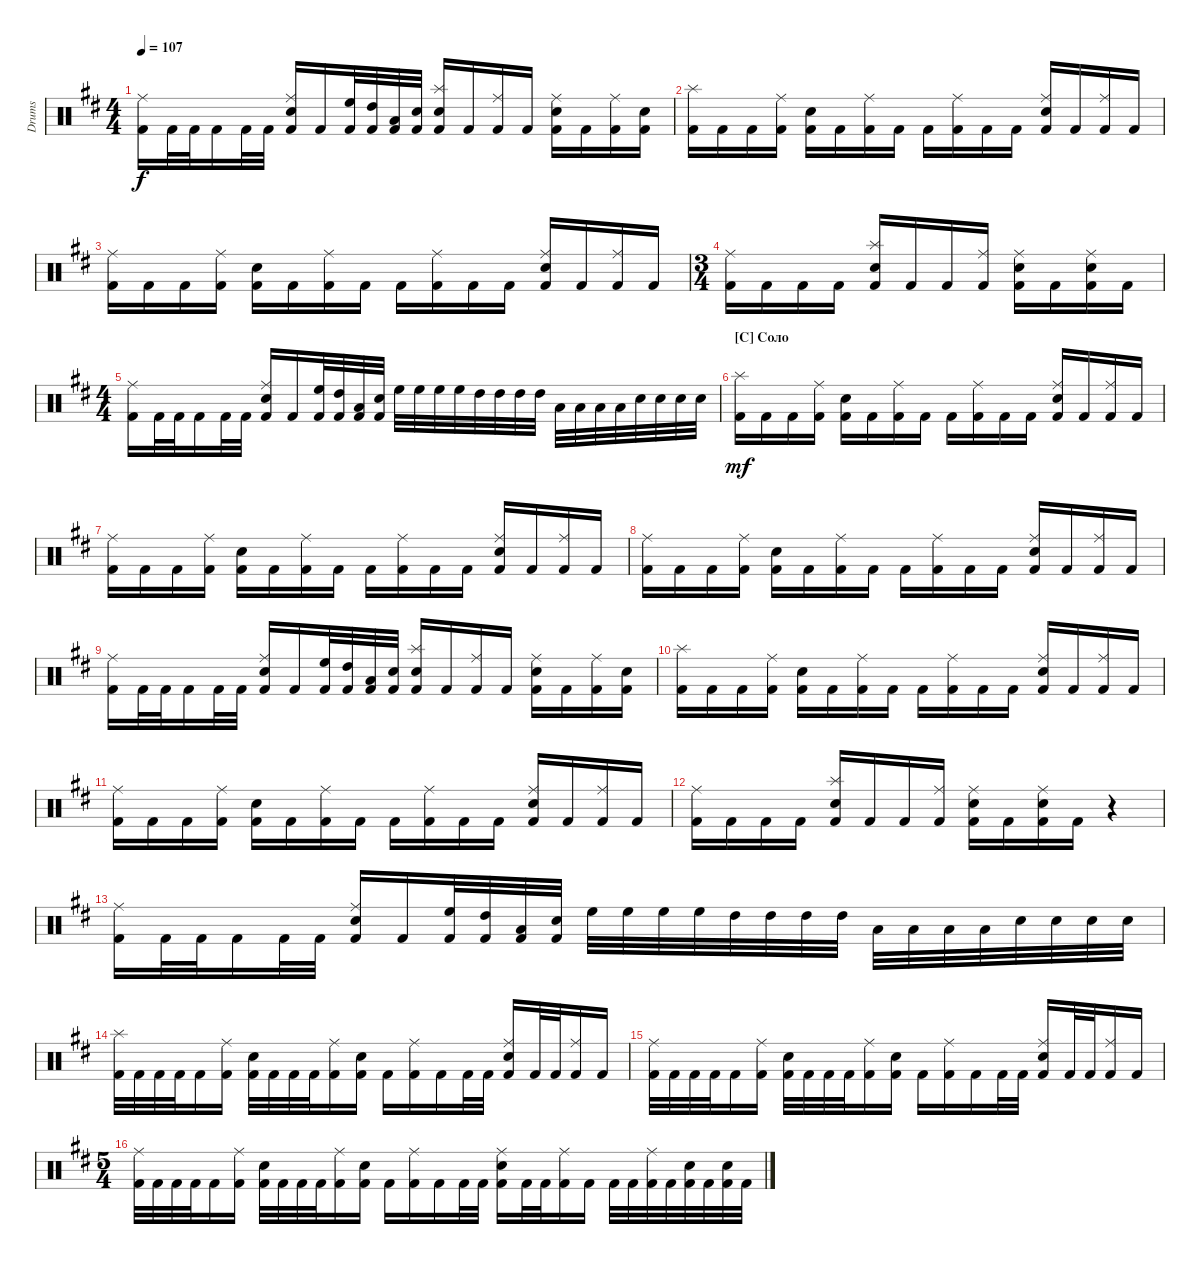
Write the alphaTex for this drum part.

\bracketExtendMode groupsimilarinstruments
\track ("Drumkit" "Drums") {multiBarRest instrument percussion}
\staff {score}
\articulation defaults
\ts (4 4)
\tempo 107
\clef neutral
\ks bminor
("Kick (hit) 2"{acc forcenatural} "Ride (middle)"{acc forcenatural}).16{dy f beam Down} "Kick (hit) 2"{acc forcenatural}.32{beam Down} "Kick (hit) 2"{acc forcenatural}.32{beam Down} "Kick (hit) 2"{acc forcenatural}.16{beam Down} "Kick (hit) 2"{acc forcenatural}.32{beam Down} "Kick (hit) 2"{acc forcenatural}.32{beam Down} ("Kick (hit) 2"{acc forcenatural} "Ride (middle)"{acc forcenatural} "Snare (hit) 2"{acc forcenatural}).16{beam Up} "Kick (hit) 2"{acc forcenatural}.16{beam Up} ("Kick (hit) 2"{acc forcenatural} "High Floor Tom (hit)"{acc forcenatural}).32{beam Up} ("Kick (hit) 2"{acc forcenatural} "High Tom (hit)"{acc forcenatural}).32{beam Up} ("Kick (hit) 2"{acc forcenatural} "Low Tom (hit)"{acc forcenatural}).32{beam Up} ("Kick (hit) 2"{acc forcenatural} "Snare (hit) 2"{acc forcenatural}).32{beam Up} ("Kick (hit) 2"{acc forcenatural} "Snare (hit) 2"{acc forcenatural} "Splash (hit)"{acc forcenatural}).16{beam Up} "Kick (hit) 2"{acc forcenatural}.16{beam Up} ("Kick (hit) 2"{acc forcenatural} "Ride (middle)"{acc forcenatural}).16{beam Up} "Kick (hit) 2"{acc forcenatural}.16{beam Up} ("Kick (hit) 2"{acc forcenatural} "Ride (middle)"{acc forcenatural} "Snare (hit) 2"{acc forcenatural}).16{beam Down} "Kick (hit) 2"{acc forcenatural}.16{beam Down} ("Kick (hit) 2"{acc forcenatural} "Ride (middle)"{acc forcenatural}).16{beam Down} ("Kick (hit) 2"{acc forcenatural} "Snare (hit) 2"{acc forcenatural}).16{beam Down} |
("Kick (hit) 2"{acc forcenatural} "Splash (hit)"{acc forcenatural}).16{beam Down} "Kick (hit) 2"{acc forcenatural}.16{beam Down} "Kick (hit) 2"{acc forcenatural}.16{beam Down} ("Kick (hit) 2"{acc forcenatural} "Ride (middle)"{acc forcenatural}).16{beam Down} ("Kick (hit) 2"{acc forcenatural} "Snare (hit) 2"{acc forcenatural}).16{beam Down} "Kick (hit) 2"{acc forcenatural}.16{beam Down} ("Kick (hit) 2"{acc forcenatural} "Ride (middle)"{acc forcenatural}).16{beam Down} "Kick (hit) 2"{acc forcenatural}.16{beam Down} "Kick (hit) 2"{acc forcenatural}.16{beam Down} ("Kick (hit) 2"{acc forcenatural} "Ride (middle)"{acc forcenatural}).16{beam Down} "Kick (hit) 2"{acc forcenatural}.16{beam Down} "Kick (hit) 2"{acc forcenatural}.16{beam Down} ("Kick (hit) 2"{acc forcenatural} "Ride (middle)"{acc forcenatural} "Snare (hit) 2"{acc forcenatural}).16{beam Up} "Kick (hit) 2"{acc forcenatural}.16{beam Up} ("Kick (hit) 2"{acc forcenatural} "Ride (middle)"{acc forcenatural}).16{beam Up} "Kick (hit) 2"{acc forcenatural}.16{beam Up} |
("Kick (hit) 2"{acc forcenatural} "Ride (middle)"{acc forcenatural}).16{beam Down} "Kick (hit) 2"{acc forcenatural}.16{beam Down} "Kick (hit) 2"{acc forcenatural}.16{beam Down} ("Kick (hit) 2"{acc forcenatural} "Ride (middle)"{acc forcenatural}).16{beam Down} ("Kick (hit) 2"{acc forcenatural} "Snare (hit) 2"{acc forcenatural}).16{beam Down} "Kick (hit) 2"{acc forcenatural}.16{beam Down} ("Kick (hit) 2"{acc forcenatural} "Ride (middle)"{acc forcenatural}).16{beam Down} "Kick (hit) 2"{acc forcenatural}.16{beam Down} "Kick (hit) 2"{acc forcenatural}.16{beam Down} ("Kick (hit) 2"{acc forcenatural} "Ride (middle)"{acc forcenatural}).16{beam Down} "Kick (hit) 2"{acc forcenatural}.16{beam Down} "Kick (hit) 2"{acc forcenatural}.16{beam Down} ("Kick (hit) 2"{acc forcenatural} "Ride (middle)"{acc forcenatural} "Snare (hit) 2"{acc forcenatural}).16{beam Up} "Kick (hit) 2"{acc forcenatural}.16{beam Up} ("Kick (hit) 2"{acc forcenatural} "Ride (middle)"{acc forcenatural}).16{beam Up} "Kick (hit) 2"{acc forcenatural}.16{beam Up} |
\ts (3 4)
("Kick (hit) 2"{acc forcenatural} "Ride (middle)"{acc forcenatural}).16{beam Down} "Kick (hit) 2"{acc forcenatural}.16{beam Down} "Kick (hit) 2"{acc forcenatural}.16{beam Down} "Kick (hit) 2"{acc forcenatural}.16{beam Down} ("Kick (hit) 2"{acc forcenatural} "Splash (hit)"{acc forcenatural} "Snare (hit) 2"{acc forcenatural}).16{beam Up} "Kick (hit) 2"{acc forcenatural}.16{beam Up} "Kick (hit) 2"{acc forcenatural}.16{beam Up} ("Kick (hit) 2"{acc forcenatural} "Ride (middle)"{acc forcenatural}).16{beam Up} ("Kick (hit) 2"{acc forcenatural} "Ride (middle)"{acc forcenatural} "Snare (hit) 2"{acc forcenatural}).16{beam Down} "Kick (hit) 2"{acc forcenatural}.16{beam Down} ("Kick (hit) 2"{acc forcenatural} "Ride (middle)"{acc forcenatural} "Snare (hit) 2"{acc forcenatural}).16{beam Down} "Kick (hit) 2"{acc forcenatural}.16{beam Down} |
\ts (4 4)
("Kick (hit) 2"{acc forcenatural} "Ride (middle)"{acc forcenatural}).16{beam Down} "Kick (hit) 2"{acc forcenatural}.32{beam Down} "Kick (hit) 2"{acc forcenatural}.32{beam Down} "Kick (hit) 2"{acc forcenatural}.16{beam Down} "Kick (hit) 2"{acc forcenatural}.32{beam Down} "Kick (hit) 2"{acc forcenatural}.32{beam Down} ("Kick (hit) 2"{acc forcenatural} "Ride (middle)"{acc forcenatural} "Snare (hit) 2"{acc forcenatural}).16{beam Up} "Kick (hit) 2"{acc forcenatural}.16{beam Up} ("Kick (hit) 2"{acc forcenatural} "High Floor Tom (hit)"{acc forcenatural}).32{beam Up} ("Kick (hit) 2"{acc forcenatural} "High Tom (hit)"{acc forcenatural}).32{beam Up} ("Kick (hit) 2"{acc forcenatural} "Low Tom (hit)"{acc forcenatural}).32{beam Up} ("Kick (hit) 2"{acc forcenatural} "Snare (hit) 2"{acc forcenatural}).32{beam Up} "High Floor Tom (hit)"{acc forcenatural}.32{beam Down} "High Floor Tom (hit)"{acc forcenatural}.32{beam Down} "High Floor Tom (hit)"{acc forcenatural}.32{beam Down} "High Floor Tom (hit)"{acc forcenatural}.32{beam Down} "High Tom (hit)"{acc forcenatural}.32{beam Down} "High Tom (hit)"{acc forcenatural}.32{beam Down} "High Tom (hit)"{acc forcenatural}.32{beam Down} "High Tom (hit)"{acc forcenatural}.32{beam Down} "Low Tom (hit)"{acc forcenatural}.32{beam Down} "Low Tom (hit)"{acc forcenatural}.32{beam Down} "Low Tom (hit)"{acc forcenatural}.32{beam Down} "Low Tom (hit)"{acc forcenatural}.32{beam Down} "Snare (hit) 2"{acc forcenatural}.32{beam Down} "Snare (hit) 2"{acc forcenatural}.32{beam Down} "Snare (hit) 2"{acc forcenatural}.32{beam Down} "Snare (hit) 2"{acc forcenatural}.32{beam Down} |
\section ("C" "Соло")
("Kick (hit) 2"{acc forcenatural} "Splash (hit)"{acc forcenatural}).16{dy mf beam Down} "Kick (hit) 2"{acc forcenatural}.16{beam Down} "Kick (hit) 2"{acc forcenatural}.16{beam Down} ("Kick (hit) 2"{acc forcenatural} "Ride (middle)"{acc forcenatural}).16{beam Down} ("Kick (hit) 2"{acc forcenatural} "Snare (hit) 2"{acc forcenatural}).16{beam Down} "Kick (hit) 2"{acc forcenatural}.16{beam Down} ("Kick (hit) 2"{acc forcenatural} "Ride (middle)"{acc forcenatural}).16{beam Down} "Kick (hit) 2"{acc forcenatural}.16{beam Down} "Kick (hit) 2"{acc forcenatural}.16{beam Down} ("Kick (hit) 2"{acc forcenatural} "Ride (middle)"{acc forcenatural}).16{beam Down} "Kick (hit) 2"{acc forcenatural}.16{beam Down} "Kick (hit) 2"{acc forcenatural}.16{beam Down} ("Kick (hit) 2"{acc forcenatural} "Ride (middle)"{acc forcenatural} "Snare (hit) 2"{acc forcenatural}).16{beam Up} "Kick (hit) 2"{acc forcenatural}.16{beam Up} ("Kick (hit) 2"{acc forcenatural} "Ride (middle)"{acc forcenatural}).16{beam Up} "Kick (hit) 2"{acc forcenatural}.16{beam Up} |
("Kick (hit) 2"{acc forcenatural} "Ride (middle)"{acc forcenatural}).16{beam Down} "Kick (hit) 2"{acc forcenatural}.16{beam Down} "Kick (hit) 2"{acc forcenatural}.16{beam Down} ("Kick (hit) 2"{acc forcenatural} "Ride (middle)"{acc forcenatural}).16{beam Down} ("Kick (hit) 2"{acc forcenatural} "Snare (hit) 2"{acc forcenatural}).16{beam Down} "Kick (hit) 2"{acc forcenatural}.16{beam Down} ("Kick (hit) 2"{acc forcenatural} "Ride (middle)"{acc forcenatural}).16{beam Down} "Kick (hit) 2"{acc forcenatural}.16{beam Down} "Kick (hit) 2"{acc forcenatural}.16{beam Down} ("Kick (hit) 2"{acc forcenatural} "Ride (middle)"{acc forcenatural}).16{beam Down} "Kick (hit) 2"{acc forcenatural}.16{beam Down} "Kick (hit) 2"{acc forcenatural}.16{beam Down} ("Kick (hit) 2"{acc forcenatural} "Ride (middle)"{acc forcenatural} "Snare (hit) 2"{acc forcenatural}).16{beam Up} "Kick (hit) 2"{acc forcenatural}.16{beam Up} ("Kick (hit) 2"{acc forcenatural} "Ride (middle)"{acc forcenatural}).16{beam Up} "Kick (hit) 2"{acc forcenatural}.16{beam Up} |
("Kick (hit) 2"{acc forcenatural} "Ride (middle)"{acc forcenatural}).16{beam Down} "Kick (hit) 2"{acc forcenatural}.16{beam Down} "Kick (hit) 2"{acc forcenatural}.16{beam Down} ("Kick (hit) 2"{acc forcenatural} "Ride (middle)"{acc forcenatural}).16{beam Down} ("Kick (hit) 2"{acc forcenatural} "Snare (hit) 2"{acc forcenatural}).16{beam Down} "Kick (hit) 2"{acc forcenatural}.16{beam Down} ("Kick (hit) 2"{acc forcenatural} "Ride (middle)"{acc forcenatural}).16{beam Down} "Kick (hit) 2"{acc forcenatural}.16{beam Down} "Kick (hit) 2"{acc forcenatural}.16{beam Down} ("Kick (hit) 2"{acc forcenatural} "Ride (middle)"{acc forcenatural}).16{beam Down} "Kick (hit) 2"{acc forcenatural}.16{beam Down} "Kick (hit) 2"{acc forcenatural}.16{beam Down} ("Kick (hit) 2"{acc forcenatural} "Ride (middle)"{acc forcenatural} "Snare (hit) 2"{acc forcenatural}).16{beam Up} "Kick (hit) 2"{acc forcenatural}.16{beam Up} ("Kick (hit) 2"{acc forcenatural} "Ride (middle)"{acc forcenatural}).16{beam Up} "Kick (hit) 2"{acc forcenatural}.16{beam Up} |
("Kick (hit) 2"{acc forcenatural} "Ride (middle)"{acc forcenatural}).16{beam Down} "Kick (hit) 2"{acc forcenatural}.32{beam Down} "Kick (hit) 2"{acc forcenatural}.32{beam Down} "Kick (hit) 2"{acc forcenatural}.16{beam Down} "Kick (hit) 2"{acc forcenatural}.32{beam Down} "Kick (hit) 2"{acc forcenatural}.32{beam Down} ("Kick (hit) 2"{acc forcenatural} "Ride (middle)"{acc forcenatural} "Snare (hit) 2"{acc forcenatural}).16{beam Up} "Kick (hit) 2"{acc forcenatural}.16{beam Up} ("Kick (hit) 2"{acc forcenatural} "High Floor Tom (hit)"{acc forcenatural}).32{beam Up} ("Kick (hit) 2"{acc forcenatural} "High Tom (hit)"{acc forcenatural}).32{beam Up} ("Kick (hit) 2"{acc forcenatural} "Low Tom (hit)"{acc forcenatural}).32{beam Up} ("Kick (hit) 2"{acc forcenatural} "Snare (hit) 2"{acc forcenatural}).32{beam Up} ("Kick (hit) 2"{acc forcenatural} "Snare (hit) 2"{acc forcenatural} "Splash (hit)"{acc forcenatural}).16{beam Up} "Kick (hit) 2"{acc forcenatural}.16{beam Up} ("Kick (hit) 2"{acc forcenatural} "Ride (middle)"{acc forcenatural}).16{beam Up} "Kick (hit) 2"{acc forcenatural}.16{beam Up} ("Kick (hit) 2"{acc forcenatural} "Ride (middle)"{acc forcenatural} "Snare (hit) 2"{acc forcenatural}).16{beam Down} "Kick (hit) 2"{acc forcenatural}.16{beam Down} ("Kick (hit) 2"{acc forcenatural} "Ride (middle)"{acc forcenatural}).16{beam Down} ("Kick (hit) 2"{acc forcenatural} "Snare (hit) 2"{acc forcenatural}).16{beam Down} |
("Kick (hit) 2"{acc forcenatural} "Splash (hit)"{acc forcenatural}).16{beam Down} "Kick (hit) 2"{acc forcenatural}.16{beam Down} "Kick (hit) 2"{acc forcenatural}.16{beam Down} ("Kick (hit) 2"{acc forcenatural} "Ride (middle)"{acc forcenatural}).16{beam Down} ("Kick (hit) 2"{acc forcenatural} "Snare (hit) 2"{acc forcenatural}).16{beam Down} "Kick (hit) 2"{acc forcenatural}.16{beam Down} ("Kick (hit) 2"{acc forcenatural} "Ride (middle)"{acc forcenatural}).16{beam Down} "Kick (hit) 2"{acc forcenatural}.16{beam Down} "Kick (hit) 2"{acc forcenatural}.16{beam Down} ("Kick (hit) 2"{acc forcenatural} "Ride (middle)"{acc forcenatural}).16{beam Down} "Kick (hit) 2"{acc forcenatural}.16{beam Down} "Kick (hit) 2"{acc forcenatural}.16{beam Down} ("Kick (hit) 2"{acc forcenatural} "Ride (middle)"{acc forcenatural} "Snare (hit) 2"{acc forcenatural}).16{beam Up} "Kick (hit) 2"{acc forcenatural}.16{beam Up} ("Kick (hit) 2"{acc forcenatural} "Ride (middle)"{acc forcenatural}).16{beam Up} "Kick (hit) 2"{acc forcenatural}.16{beam Up} |
("Kick (hit) 2"{acc forcenatural} "Ride (middle)"{acc forcenatural}).16{beam Down} "Kick (hit) 2"{acc forcenatural}.16{beam Down} "Kick (hit) 2"{acc forcenatural}.16{beam Down} ("Kick (hit) 2"{acc forcenatural} "Ride (middle)"{acc forcenatural}).16{beam Down} ("Kick (hit) 2"{acc forcenatural} "Snare (hit) 2"{acc forcenatural}).16{beam Down} "Kick (hit) 2"{acc forcenatural}.16{beam Down} ("Kick (hit) 2"{acc forcenatural} "Ride (middle)"{acc forcenatural}).16{beam Down} "Kick (hit) 2"{acc forcenatural}.16{beam Down} "Kick (hit) 2"{acc forcenatural}.16{beam Down} ("Kick (hit) 2"{acc forcenatural} "Ride (middle)"{acc forcenatural}).16{beam Down} "Kick (hit) 2"{acc forcenatural}.16{beam Down} "Kick (hit) 2"{acc forcenatural}.16{beam Down} ("Kick (hit) 2"{acc forcenatural} "Ride (middle)"{acc forcenatural} "Snare (hit) 2"{acc forcenatural}).16{beam Up} "Kick (hit) 2"{acc forcenatural}.16{beam Up} ("Kick (hit) 2"{acc forcenatural} "Ride (middle)"{acc forcenatural}).16{beam Up} "Kick (hit) 2"{acc forcenatural}.16{beam Up} |
("Kick (hit) 2"{acc forcenatural} "Ride (middle)"{acc forcenatural}).16{beam Down} "Kick (hit) 2"{acc forcenatural}.16{beam Down} "Kick (hit) 2"{acc forcenatural}.16{beam Down} "Kick (hit) 2"{acc forcenatural}.16{beam Down} ("Kick (hit) 2"{acc forcenatural} "Splash (hit)"{acc forcenatural} "Snare (hit) 2"{acc forcenatural}).16{beam Up} "Kick (hit) 2"{acc forcenatural}.16{beam Up} "Kick (hit) 2"{acc forcenatural}.16{beam Up} ("Kick (hit) 2"{acc forcenatural} "Ride (middle)"{acc forcenatural}).16{beam Up} ("Kick (hit) 2"{acc forcenatural} "Ride (middle)"{acc forcenatural} "Snare (hit) 2"{acc forcenatural}).16{beam Down} "Kick (hit) 2"{acc forcenatural}.16{beam Down} ("Kick (hit) 2"{acc forcenatural} "Ride (middle)"{acc forcenatural} "Snare (hit) 2"{acc forcenatural}).16{beam Down} "Kick (hit) 2"{acc forcenatural}.16{beam Down} r.4{beam Down} |
("Kick (hit) 2"{acc forcenatural} "Ride (middle)"{acc forcenatural}).16{beam Down} "Kick (hit) 2"{acc forcenatural}.32{beam Down} "Kick (hit) 2"{acc forcenatural}.32{beam Down} "Kick (hit) 2"{acc forcenatural}.16{beam Down} "Kick (hit) 2"{acc forcenatural}.32{beam Down} "Kick (hit) 2"{acc forcenatural}.32{beam Down} ("Kick (hit) 2"{acc forcenatural} "Ride (middle)"{acc forcenatural} "Snare (hit) 2"{acc forcenatural}).16{beam Up} "Kick (hit) 2"{acc forcenatural}.16{beam Up} ("Kick (hit) 2"{acc forcenatural} "High Floor Tom (hit)"{acc forcenatural}).32{beam Up} ("Kick (hit) 2"{acc forcenatural} "High Tom (hit)"{acc forcenatural}).32{beam Up} ("Kick (hit) 2"{acc forcenatural} "Low Tom (hit)"{acc forcenatural}).32{beam Up} ("Kick (hit) 2"{acc forcenatural} "Snare (hit) 2"{acc forcenatural}).32{beam Up} "High Floor Tom (hit)"{acc forcenatural}.32{beam Down} "High Floor Tom (hit)"{acc forcenatural}.32{beam Down} "High Floor Tom (hit)"{acc forcenatural}.32{beam Down} "High Floor Tom (hit)"{acc forcenatural}.32{beam Down} "High Tom (hit)"{acc forcenatural}.32{beam Down} "High Tom (hit)"{acc forcenatural}.32{beam Down} "High Tom (hit)"{acc forcenatural}.32{beam Down} "High Tom (hit)"{acc forcenatural}.32{beam Down} "Low Tom (hit)"{acc forcenatural}.32{beam Down} "Low Tom (hit)"{acc forcenatural}.32{beam Down} "Low Tom (hit)"{acc forcenatural}.32{beam Down} "Low Tom (hit)"{acc forcenatural}.32{beam Down} "Snare (hit) 2"{acc forcenatural}.32{beam Down} "Snare (hit) 2"{acc forcenatural}.32{beam Down} "Snare (hit) 2"{acc forcenatural}.32{beam Down} "Snare (hit) 2"{acc forcenatural}.32{beam Down} |
("Kick (hit) 2"{acc forcenatural} "Splash (hit)"{acc forcenatural}).32{beam Down} "Kick (hit) 2"{acc forcenatural}.32{beam Down} "Kick (hit) 2"{acc forcenatural}.32{beam Down} "Kick (hit) 2"{acc forcenatural}.32{beam Down} "Kick (hit) 2"{acc forcenatural}.16{beam Down} ("Kick (hit) 2"{acc forcenatural} "Ride (middle)"{acc forcenatural}).16{beam Down} ("Kick (hit) 2"{acc forcenatural} "Snare (hit) 2"{acc forcenatural}).32{beam Down} "Kick (hit) 2"{acc forcenatural}.32{beam Down} "Kick (hit) 2"{acc forcenatural}.32{beam Down} "Kick (hit) 2"{acc forcenatural}.32{beam Down} ("Kick (hit) 2"{acc forcenatural} "Ride (middle)"{acc forcenatural}).16{beam Down} ("Kick (hit) 2"{acc forcenatural} "Snare (hit) 2"{acc forcenatural}).16{beam Down} "Kick (hit) 2"{acc forcenatural}.16{beam Down} ("Kick (hit) 2"{acc forcenatural} "Ride (middle)"{acc forcenatural}).16{beam Down} "Kick (hit) 2"{acc forcenatural}.16{beam Down} "Kick (hit) 2"{acc forcenatural}.32{beam Down} "Kick (hit) 2"{acc forcenatural}.32{beam Down} ("Kick (hit) 2"{acc forcenatural} "Ride (middle)"{acc forcenatural} "Snare (hit) 2"{acc forcenatural}).16{beam Up} "Kick (hit) 2"{acc forcenatural}.32{beam Up} "Kick (hit) 2"{acc forcenatural}.32{beam Up} ("Kick (hit) 2"{acc forcenatural} "Ride (middle)"{acc forcenatural}).16{beam Up} "Kick (hit) 2"{acc forcenatural}.16{beam Up} |
("Kick (hit) 2"{acc forcenatural} "Ride (middle)"{acc forcenatural}).32{beam Down} "Kick (hit) 2"{acc forcenatural}.32{beam Down} "Kick (hit) 2"{acc forcenatural}.32{beam Down} "Kick (hit) 2"{acc forcenatural}.32{beam Down} "Kick (hit) 2"{acc forcenatural}.16{beam Down} ("Kick (hit) 2"{acc forcenatural} "Ride (middle)"{acc forcenatural}).16{beam Down} ("Kick (hit) 2"{acc forcenatural} "Snare (hit) 2"{acc forcenatural}).32{beam Down} "Kick (hit) 2"{acc forcenatural}.32{beam Down} "Kick (hit) 2"{acc forcenatural}.32{beam Down} "Kick (hit) 2"{acc forcenatural}.32{beam Down} ("Kick (hit) 2"{acc forcenatural} "Ride (middle)"{acc forcenatural}).16{beam Down} ("Kick (hit) 2"{acc forcenatural} "Snare (hit) 2"{acc forcenatural}).16{beam Down} "Kick (hit) 2"{acc forcenatural}.16{beam Down} ("Kick (hit) 2"{acc forcenatural} "Ride (middle)"{acc forcenatural}).16{beam Down} "Kick (hit) 2"{acc forcenatural}.16{beam Down} "Kick (hit) 2"{acc forcenatural}.32{beam Down} "Kick (hit) 2"{acc forcenatural}.32{beam Down} ("Kick (hit) 2"{acc forcenatural} "Ride (middle)"{acc forcenatural} "Snare (hit) 2"{acc forcenatural}).16{beam Up} "Kick (hit) 2"{acc forcenatural}.32{beam Up} "Kick (hit) 2"{acc forcenatural}.32{beam Up} ("Kick (hit) 2"{acc forcenatural} "Ride (middle)"{acc forcenatural}).16{beam Up} "Kick (hit) 2"{acc forcenatural}.16{beam Up} |
\ts (5 4)
("Kick (hit) 2"{acc forcenatural} "Ride (middle)"{acc forcenatural}).32{beam Down} "Kick (hit) 2"{acc forcenatural}.32{beam Down} "Kick (hit) 2"{acc forcenatural}.32{beam Down} "Kick (hit) 2"{acc forcenatural}.32{beam Down} "Kick (hit) 2"{acc forcenatural}.16{beam Down} ("Kick (hit) 2"{acc forcenatural} "Ride (middle)"{acc forcenatural}).16{beam Down} ("Kick (hit) 2"{acc forcenatural} "Snare (hit) 2"{acc forcenatural}).32{beam Down} "Kick (hit) 2"{acc forcenatural}.32{beam Down} "Kick (hit) 2"{acc forcenatural}.32{beam Down} "Kick (hit) 2"{acc forcenatural}.32{beam Down} ("Kick (hit) 2"{acc forcenatural} "Ride (middle)"{acc forcenatural}).16{beam Down} ("Kick (hit) 2"{acc forcenatural} "Snare (hit) 2"{acc forcenatural}).16{beam Down} "Kick (hit) 2"{acc forcenatural}.16{beam Down} ("Kick (hit) 2"{acc forcenatural} "Ride (middle)"{acc forcenatural}).16{beam Down} "Kick (hit) 2"{acc forcenatural}.16{beam Down} "Kick (hit) 2"{acc forcenatural}.32{beam Down} "Kick (hit) 2"{acc forcenatural}.32{beam Down} ("Kick (hit) 2"{acc forcenatural} "Ride (middle)"{acc forcenatural} "Snare (hit) 2"{acc forcenatural}).16{beam Down} "Kick (hit) 2"{acc forcenatural}.32{beam Down} "Kick (hit) 2"{acc forcenatural}.32{beam Down} ("Kick (hit) 2"{acc forcenatural} "Ride (middle)"{acc forcenatural}).16{beam Down} "Kick (hit) 2"{acc forcenatural}.16{beam Down} "Kick (hit) 2"{acc forcenatural}.32{beam Down} "Kick (hit) 2"{acc forcenatural}.32{beam Down} ("Kick (hit) 2"{acc forcenatural} "Ride (middle)"{acc forcenatural}).32{beam Down} "Kick (hit) 2"{acc forcenatural}.32{beam Down} ("Kick (hit) 2"{acc forcenatural} "Snare (hit) 2"{acc forcenatural}).32{beam Down} "Kick (hit) 2"{acc forcenatural}.32{beam Down} ("Kick (hit) 2"{acc forcenatural} "Snare (hit) 2"{acc forcenatural}).32{beam Down} "Kick (hit) 2"{acc forcenatural}.32{beam Down}
